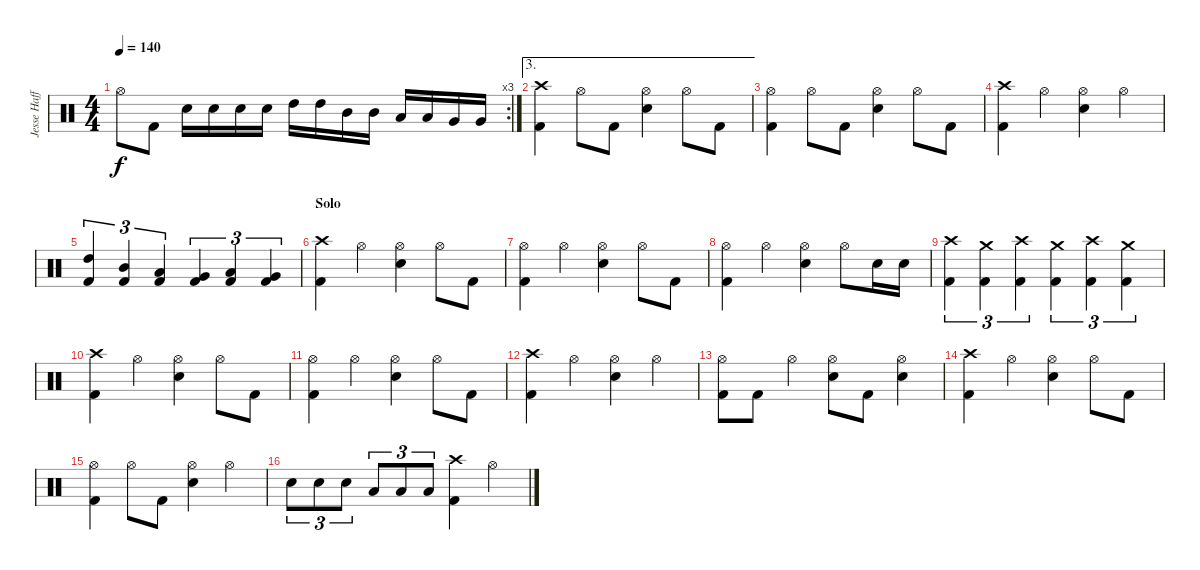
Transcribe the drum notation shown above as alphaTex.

\track ("Jesse Haff" "Jesse Haff") {instrument percussion}
\staff {score}
\articulation defaults
\rc 3
\ts (4 4)
\tempo 140
\clef neutral
\ks c "Hi-Hat (open)".8{dy f} "Kick (hit) 2".8 "Electric Snare (hit)".16 "Electric Snare (hit)".16 "Electric Snare (hit)".16 "Electric Snare (hit)".16 "High Tom (hit)".16 "High Tom (hit)".16 "Mid Tom (hit)".16 "Mid Tom (hit)".16 "Low Tom (hit)".16 "Low Tom (hit)".16 "Very Low Tom (hit)".16 "Very Low Tom (hit)".16
|
\ae 3
("Crash high (hit)" "Kick (hit) 2").4 "Hi-Hat (open)".8 "Kick (hit) 2".8 ("Hi-Hat (open)" "Electric Snare (hit)").4 "Hi-Hat (open)".8 "Kick (hit) 2".8 |
("Hi-Hat (open)" "Kick (hit) 2").4 "Hi-Hat (open)".8 "Kick (hit) 2".8 ("Hi-Hat (open)" "Electric Snare (hit)").4 "Hi-Hat (open)".8 "Kick (hit) 2".8 |
("Crash high (hit)" "Kick (hit) 2").4 "Hi-Hat (open)".4 ("Hi-Hat (open)" "Electric Snare (hit)").4 "Hi-Hat (open)".4 |
("High Tom (hit)" "Kick (hit) 2").4{tu (3 2)} ("Mid Tom (hit)" "Kick (hit) 2").4{tu (3 2)} ("Low Tom (hit)" "Kick (hit) 2").4{tu (3 2)} ("Very Low Tom (hit)" "Kick (hit) 2").4{tu (3 2)} ("Low Floor Tom (hit)" "Kick (hit) 2").4{tu (3 2)} ("Very Low Tom (hit)" "Kick (hit) 2").4{tu (3 2)} |
\section ("" "Solo")
("Crash high (hit)" "Kick (hit) 2").4 "Hi-Hat (open)".4 ("Hi-Hat (open)" "Electric Snare (hit)").4 "Hi-Hat (open)".8 "Kick (hit) 2".8 |
("Hi-Hat (open)" "Kick (hit) 2").4 "Hi-Hat (open)".4 ("Hi-Hat (open)" "Electric Snare (hit)").4 "Hi-Hat (open)".8 "Kick (hit) 2".8 |
("Hi-Hat (open)" "Kick (hit) 2").4 "Hi-Hat (open)".4 ("Hi-Hat (open)" "Electric Snare (hit)").4 "Hi-Hat (open)".8 "Electric Snare (hit)".16 "Electric Snare (hit)".16 |
("Crash high (hit)" "Kick (hit) 2").4{tu (3 2)} ("Crash medium (hit)" "Kick (hit) 2").4{tu (3 2)} ("Crash high (hit)" "Kick (hit) 2").4{tu (3 2)} ("Crash medium (hit)" "Kick (hit) 2").4{tu (3 2)} ("Crash high (hit)" "Kick (hit) 2").4{tu (3 2)} ("Crash medium (hit)" "Kick (hit) 2").4{tu (3 2)} |
("Crash high (hit)" "Kick (hit) 2").4 "Hi-Hat (open)".4 ("Hi-Hat (open)" "Electric Snare (hit)").4 "Hi-Hat (open)".8 "Kick (hit) 2".8 |
("Hi-Hat (open)" "Kick (hit) 2").4 "Hi-Hat (open)".4 ("Hi-Hat (open)" "Electric Snare (hit)").4 "Hi-Hat (open)".8 "Kick (hit) 2".8 |
("Crash high (hit)" "Kick (hit) 2").4 "Hi-Hat (open)".4 ("Hi-Hat (open)" "Electric Snare (hit)").4 "Hi-Hat (open)".4 |
("Hi-Hat (open)" "Kick (hit) 2").8 "Kick (hit) 2".8 "Hi-Hat (open)".4 ("Hi-Hat (open)" "Electric Snare (hit)").8 "Kick (hit) 2".8 ("Hi-Hat (open)" "Electric Snare (hit)").4 |
("Crash high (hit)" "Kick (hit) 2").4 "Hi-Hat (open)".4 ("Hi-Hat (open)" "Electric Snare (hit)").4 "Hi-Hat (open)".8 "Kick (hit) 2".8 |
("Hi-Hat (open)" "Kick (hit) 2").4 "Hi-Hat (open)".8 "Kick (hit) 2".8 ("Hi-Hat (open)" "Electric Snare (hit)").4 "Hi-Hat (open)".4 |
"Electric Snare (hit)".8{tu (3 2)} "Electric Snare (hit)".8{tu (3 2)} "Electric Snare (hit)".8{tu (3 2)} "Low Tom (hit)".8{tu (3 2)} "Low Tom (hit)".8{tu (3 2)} "Low Tom (hit)".8{tu (3 2)} ("Crash high (hit)" "Kick (hit) 2").4 "Hi-Hat (open)".4
